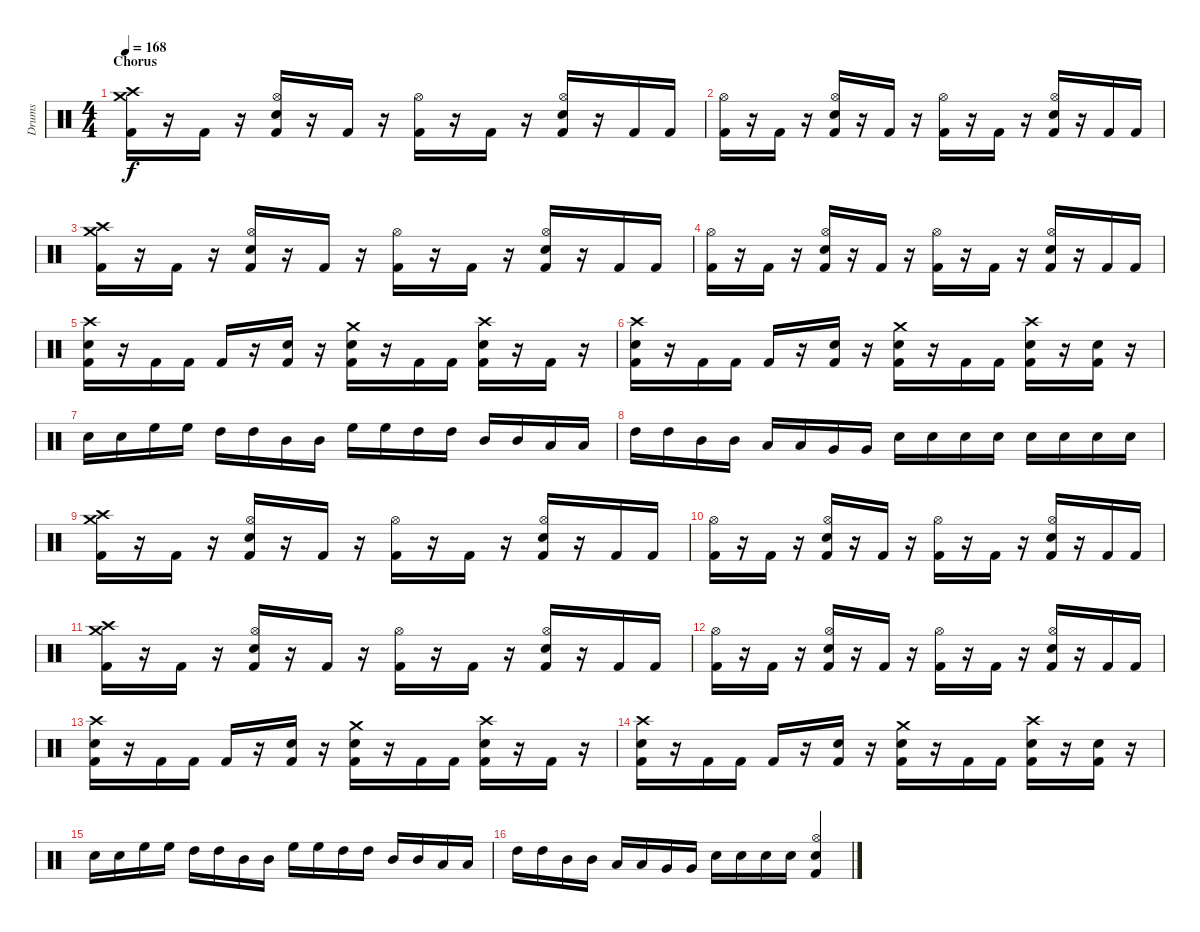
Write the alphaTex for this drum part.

\track ("Drums" "Drums") {instrument percussion}
\staff {score}
\articulation defaults
\ts (4 4)
\section ("" "Chorus")
\tempo 168
\clef neutral
\ks c
("Crash medium (hit)" "Crash high (hit)" "Kick (hit) 2").16{dy f} r.16 "Kick (hit) 2".16 r.16 ("Hi-Hat (open)" "Snare (hit) 2" "Kick (hit) 2").16 r.16 "Kick (hit) 2".16 r.16 ("Hi-Hat (open)" "Kick (hit) 2").16 r.16 "Kick (hit) 2".16 r.16 ("Hi-Hat (open)" "Snare (hit) 2" "Kick (hit) 2").16 r.16 "Kick (hit) 2".16 "Kick (hit) 2".16 |
("Hi-Hat (open)" "Kick (hit) 2").16 r.16 "Kick (hit) 2".16 r.16 ("Hi-Hat (open)" "Snare (hit) 2" "Kick (hit) 2").16 r.16 "Kick (hit) 2".16 r.16 ("Hi-Hat (open)" "Kick (hit) 2").16 r.16 "Kick (hit) 2".16 r.16 ("Hi-Hat (open)" "Snare (hit) 2" "Kick (hit) 2").16 r.16 "Kick (hit) 2".16 "Kick (hit) 2".16 |
("Crash medium (hit)" "Crash high (hit)" "Kick (hit) 2").16 r.16 "Kick (hit) 2".16 r.16 ("Hi-Hat (open)" "Snare (hit) 2" "Kick (hit) 2").16 r.16 "Kick (hit) 2".16 r.16 ("Hi-Hat (open)" "Kick (hit) 2").16 r.16 "Kick (hit) 2".16 r.16 ("Hi-Hat (open)" "Snare (hit) 2" "Kick (hit) 2").16 r.16 "Kick (hit) 2".16 "Kick (hit) 2".16 |
("Hi-Hat (open)" "Kick (hit) 2").16 r.16 "Kick (hit) 2".16 r.16 ("Hi-Hat (open)" "Snare (hit) 2" "Kick (hit) 2").16 r.16 "Kick (hit) 2".16 r.16 ("Hi-Hat (open)" "Kick (hit) 2").16 r.16 "Kick (hit) 2".16 r.16 ("Hi-Hat (open)" "Snare (hit) 2" "Kick (hit) 2").16 r.16 "Kick (hit) 2".16 "Kick (hit) 2".16 |
("Crash high (hit)" "Snare (hit) 2" "Kick (hit) 2").16 r.16 "Kick (hit) 2".16 "Kick (hit) 2".16 "Kick (hit) 2".16 r.16 ("Snare (hit) 2" "Kick (hit) 2").16 r.16 ("Crash medium (hit)" "Snare (hit) 2" "Kick (hit) 2").16 r.16 "Kick (hit) 2".16 "Kick (hit) 2".16 ("Crash high (hit)" "Snare (hit) 2" "Kick (hit) 2").16 r.16 "Kick (hit) 2".16 r.16 |
("Crash high (hit)" "Snare (hit) 2" "Kick (hit) 2").16 r.16 "Kick (hit) 2".16 "Kick (hit) 2".16 "Kick (hit) 2".16 r.16 ("Snare (hit) 2" "Kick (hit) 2").16 r.16 ("Crash medium (hit)" "Snare (hit) 2" "Kick (hit) 2").16 r.16 "Kick (hit) 2".16 "Kick (hit) 2".16 ("Crash high (hit)" "Snare (hit) 2" "Kick (hit) 2").16 r.16 ("Snare (hit) 2" "Kick (hit) 2").16 r.16 |
"Snare (hit) 2".16 "Snare (hit) 2".16 "High Floor Tom (hit)".16 "High Floor Tom (hit)".16 "High Tom (hit)".16 "High Tom (hit)".16 "Mid Tom (hit)".16 "Mid Tom (hit)".16 "High Floor Tom (hit)".16 "High Floor Tom (hit)".16 "High Tom (hit)".16 "High Tom (hit)".16 "Mid Tom (hit)".16 "Mid Tom (hit)".16 "Low Tom (hit)".16 "Low Tom (hit)".16 |
"High Tom (hit)".16 "High Tom (hit)".16 "Mid Tom (hit)".16 "Mid Tom (hit)".16 "Low Tom (hit)".16 "Low Tom (hit)".16 "Very Low Tom (hit)".16 "Very Low Tom (hit)".16 "Snare (hit) 2".16 "Snare (hit) 2".16 "Snare (hit) 2".16 "Snare (hit) 2".16 "Snare (hit) 2".16 "Snare (hit) 2".16 "Snare (hit) 2".16 "Snare (hit) 2".16 |
("Crash medium (hit)" "Crash high (hit)" "Kick (hit) 2").16 r.16 "Kick (hit) 2".16 r.16 ("Hi-Hat (open)" "Snare (hit) 2" "Kick (hit) 2").16 r.16 "Kick (hit) 2".16 r.16 ("Hi-Hat (open)" "Kick (hit) 2").16 r.16 "Kick (hit) 2".16 r.16 ("Hi-Hat (open)" "Snare (hit) 2" "Kick (hit) 2").16 r.16 "Kick (hit) 2".16 "Kick (hit) 2".16 |
("Hi-Hat (open)" "Kick (hit) 2").16 r.16 "Kick (hit) 2".16 r.16 ("Hi-Hat (open)" "Snare (hit) 2" "Kick (hit) 2").16 r.16 "Kick (hit) 2".16 r.16 ("Hi-Hat (open)" "Kick (hit) 2").16 r.16 "Kick (hit) 2".16 r.16 ("Hi-Hat (open)" "Snare (hit) 2" "Kick (hit) 2").16 r.16 "Kick (hit) 2".16 "Kick (hit) 2".16 |
("Crash medium (hit)" "Crash high (hit)" "Kick (hit) 2").16 r.16 "Kick (hit) 2".16 r.16 ("Hi-Hat (open)" "Snare (hit) 2" "Kick (hit) 2").16 r.16 "Kick (hit) 2".16 r.16 ("Hi-Hat (open)" "Kick (hit) 2").16 r.16 "Kick (hit) 2".16 r.16 ("Hi-Hat (open)" "Snare (hit) 2" "Kick (hit) 2").16 r.16 "Kick (hit) 2".16 "Kick (hit) 2".16 |
("Hi-Hat (open)" "Kick (hit) 2").16 r.16 "Kick (hit) 2".16 r.16 ("Hi-Hat (open)" "Snare (hit) 2" "Kick (hit) 2").16 r.16 "Kick (hit) 2".16 r.16 ("Hi-Hat (open)" "Kick (hit) 2").16 r.16 "Kick (hit) 2".16 r.16 ("Hi-Hat (open)" "Snare (hit) 2" "Kick (hit) 2").16 r.16 "Kick (hit) 2".16 "Kick (hit) 2".16 |
("Crash high (hit)" "Snare (hit) 2" "Kick (hit) 2").16 r.16 "Kick (hit) 2".16 "Kick (hit) 2".16 "Kick (hit) 2".16 r.16 ("Snare (hit) 2" "Kick (hit) 2").16 r.16 ("Crash medium (hit)" "Snare (hit) 2" "Kick (hit) 2").16 r.16 "Kick (hit) 2".16 "Kick (hit) 2".16 ("Crash high (hit)" "Snare (hit) 2" "Kick (hit) 2").16 r.16 "Kick (hit) 2".16 r.16 |
("Crash high (hit)" "Snare (hit) 2" "Kick (hit) 2").16 r.16 "Kick (hit) 2".16 "Kick (hit) 2".16 "Kick (hit) 2".16 r.16 ("Snare (hit) 2" "Kick (hit) 2").16 r.16 ("Crash medium (hit)" "Snare (hit) 2" "Kick (hit) 2").16 r.16 "Kick (hit) 2".16 "Kick (hit) 2".16 ("Crash high (hit)" "Snare (hit) 2" "Kick (hit) 2").16 r.16 ("Snare (hit) 2" "Kick (hit) 2").16 r.16 |
"Snare (hit) 2".16 "Snare (hit) 2".16 "High Floor Tom (hit)".16 "High Floor Tom (hit)".16 "High Tom (hit)".16 "High Tom (hit)".16 "Mid Tom (hit)".16 "Mid Tom (hit)".16 "High Floor Tom (hit)".16 "High Floor Tom (hit)".16 "High Tom (hit)".16 "High Tom (hit)".16 "Mid Tom (hit)".16 "Mid Tom (hit)".16 "Low Tom (hit)".16 "Low Tom (hit)".16 |
"High Tom (hit)".16 "High Tom (hit)".16 "Mid Tom (hit)".16 "Mid Tom (hit)".16 "Low Tom (hit)".16 "Low Tom (hit)".16 "Very Low Tom (hit)".16 "Very Low Tom (hit)".16 "Snare (hit) 2".16 "Snare (hit) 2".16 "Snare (hit) 2".16 "Snare (hit) 2".16 ("Hi-Hat (open)" "Snare (hit) 2" "Kick (hit) 2").4
